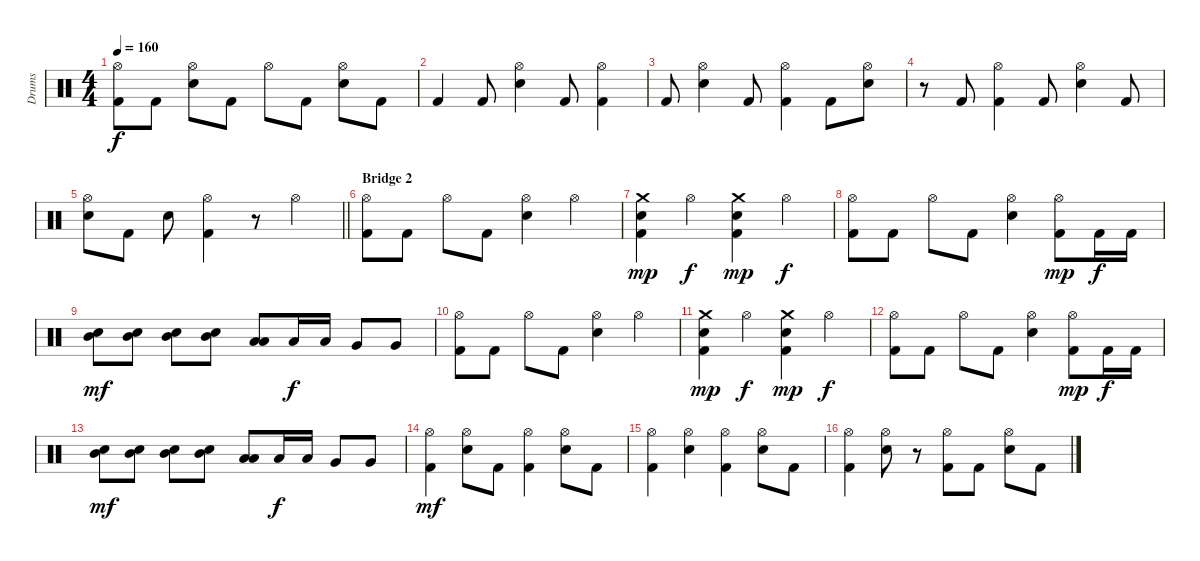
\track ("Drums" "Drums") {instrument percussion}
\staff {score}
\articulation defaults
\ts (4 4)
\tempo 160
\clef neutral
\ks c
("Hi-Hat (open)" "Kick (hit) 2").8{dy f} "Kick (hit) 2".8 ("Hi-Hat (open)" "Electric Snare (hit)").8 "Kick (hit) 2".8 "Hi-Hat (open)".8 "Kick (hit) 2".8 ("Hi-Hat (open)" "Electric Snare (hit)").8 "Kick (hit) 2".8 |
"Kick (hit) 2".4 "Kick (hit) 2".8 ("Hi-Hat (open)" "Electric Snare (hit)").4 "Kick (hit) 2".8 ("Hi-Hat (open)" "Kick (hit) 2").4 |
"Kick (hit) 2".8 ("Hi-Hat (open)" "Electric Snare (hit)").4 "Kick (hit) 2".8 ("Hi-Hat (open)" "Kick (hit) 2").4 "Kick (hit) 2".8 ("Hi-Hat (open)" "Electric Snare (hit)").8 |
r.8 "Kick (hit) 2".8 ("Hi-Hat (open)" "Kick (hit) 2").4 "Kick (hit) 2".8 ("Hi-Hat (open)" "Electric Snare (hit)").4 "Kick (hit) 2".8 |
\barLineRight lightlight
("Hi-Hat (open)" "Electric Snare (hit)").8 "Kick (hit) 2".8 "Electric Snare (hit)".8 ("Hi-Hat (open)" "Kick (hit) 2").4 r.8 "Hi-Hat (open)".4 |
\section ("" "Bridge 2")
("Hi-Hat (open)" "Kick (hit) 2").8 "Kick (hit) 2".8 "Hi-Hat (open)".8 "Kick (hit) 2".8 ("Hi-Hat (open)" "Electric Snare (hit)").4 "Hi-Hat (open)".4 |
("Crash medium (hit)" "Electric Snare (hit)" "Kick (hit) 2").4{dy mp} "Hi-Hat (open)".4{dy f} ("Crash medium (hit)" "Electric Snare (hit)" "Kick (hit) 2").4{dy mp} "Hi-Hat (open)".4{dy f} |
("Hi-Hat (open)" "Kick (hit) 2").8 "Kick (hit) 2".8 "Hi-Hat (open)".8 "Kick (hit) 2".8 ("Hi-Hat (open)" "Electric Snare (hit)").4 ("Hi-Hat (open)" "Kick (hit) 2").8{dy mp} "Kick (hit) 2".16{dy f} "Kick (hit) 2".16 |
("Mid Tom (hit)" "Electric Snare (hit)").8{dy mf} ("Mid Tom (hit)" "Electric Snare (hit)").8 ("Mid Tom (hit)" "Electric Snare (hit)").8 ("Mid Tom (hit)" "Electric Snare (hit)").8 ("Low Tom (hit)" "Low Tom (hit)").8 "Low Tom (hit)".16{dy f} "Low Tom (hit)".16 "Very Low Tom (hit)".8 "Very Low Tom (hit)".8 |
("Hi-Hat (open)" "Kick (hit) 2").8 "Kick (hit) 2".8 "Hi-Hat (open)".8 "Kick (hit) 2".8 ("Hi-Hat (open)" "Electric Snare (hit)").4 "Hi-Hat (open)".4 |
("Crash medium (hit)" "Electric Snare (hit)" "Kick (hit) 2").4{dy mp} "Hi-Hat (open)".4{dy f} ("Crash medium (hit)" "Electric Snare (hit)" "Kick (hit) 2").4{dy mp} "Hi-Hat (open)".4{dy f} |
("Hi-Hat (open)" "Kick (hit) 2").8 "Kick (hit) 2".8 "Hi-Hat (open)".8 "Kick (hit) 2".8 ("Hi-Hat (open)" "Electric Snare (hit)").4 ("Hi-Hat (open)" "Kick (hit) 2").8{dy mp} "Kick (hit) 2".16{dy f} "Kick (hit) 2".16 |
("Mid Tom (hit)" "Electric Snare (hit)").8{dy mf} ("Mid Tom (hit)" "Electric Snare (hit)").8 ("Mid Tom (hit)" "Electric Snare (hit)").8 ("Mid Tom (hit)" "Electric Snare (hit)").8 ("Low Tom (hit)" "Low Tom (hit)").8 "Low Tom (hit)".16{dy f} "Low Tom (hit)".16 "Very Low Tom (hit)".8 "Very Low Tom (hit)".8 |
("Hi-Hat (open)" "Kick (hit) 2").4{dy mf} ("Hi-Hat (open)" "Snare (hit) 2").8 "Kick (hit) 2".8 ("Hi-Hat (open)" "Kick (hit) 2").4 ("Hi-Hat (open)" "Snare (hit) 2").8 "Kick (hit) 2".8 |
("Hi-Hat (open)" "Kick (hit) 2").4 ("Hi-Hat (open)" "Snare (hit) 2").4 ("Hi-Hat (open)" "Kick (hit) 2").4 ("Hi-Hat (open)" "Snare (hit) 2").8 "Kick (hit) 2".8 |
("Hi-Hat (open)" "Kick (hit) 2").4 ("Hi-Hat (open)" "Snare (hit) 2").8 r.8 ("Hi-Hat (open)" "Kick (hit) 2").8 "Kick (hit) 2".8 ("Hi-Hat (open)" "Snare (hit) 2").8 "Kick (hit) 2".8
